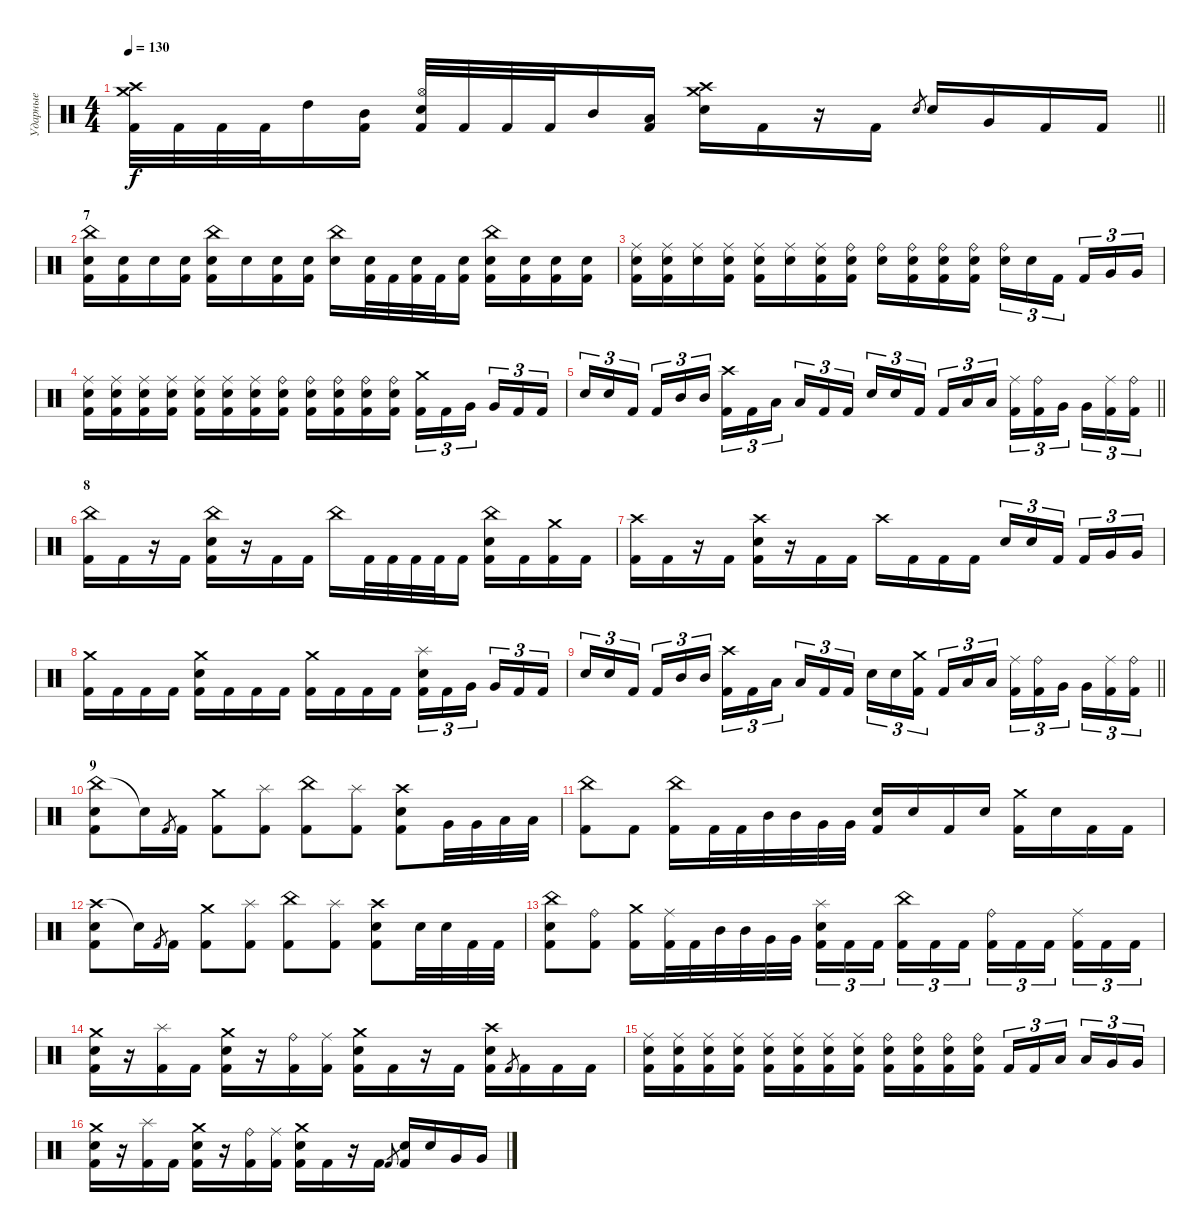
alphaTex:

\track ("Ударные" "Ударные") {instrument percussion}
\staff {score}
\articulation defaults
\ts (4 4)
\tempo 130
\clef neutral
\barLineRight lightlight
\ks c
("Crash medium (hit)" "Crash high (hit)" "Kick (hit) 2").32{dy f} "Kick (hit) 2".32 "Kick (hit) 2".32 "Kick (hit) 2".32 "High Tom (hit)".16 ("Mid Tom (hit)" "Kick (hit) 2").16 ("Hi-Hat (open)" "Electric Snare (hit)" "Kick (hit) 2").32 "Kick (hit) 2".32 "Kick (hit) 2".32 "Kick (hit) 2".32 "Mid Tom (hit)".16 ("Low Tom (hit)" "Kick (hit) 2").16 ("Crash medium (hit)" "Crash high (hit)" "Electric Snare (hit)").16 "Kick (hit) 2".16 r.16 "Kick (hit) 2".16 "Electric Snare (hit)".8{gr} "Electric Snare (hit)".16 "Very Low Tom (hit)".16 "Kick (hit) 2".16 "Kick (hit) 2".16 |
\section ("" "7")
("China (hit)" "Electric Snare (hit)" "Kick (hit) 2").16 ("Electric Snare (hit)" "Kick (hit) 2").16 "Electric Snare (hit)".16 ("Electric Snare (hit)" "Kick (hit) 2").16 ("China (hit)" "Electric Snare (hit)" "Kick (hit) 2").16 "Electric Snare (hit)".16 ("Electric Snare (hit)" "Kick (hit) 2").16 ("Electric Snare (hit)" "Kick (hit) 2").16 ("China (hit)" "Electric Snare (hit)").16 ("Electric Snare (hit)" "Kick (hit) 2").32 "Kick (hit) 2".32 ("Electric Snare (hit)" "Kick (hit) 2").32 "Kick (hit) 2".32 ("Electric Snare (hit)" "Kick (hit) 2").16 ("China (hit)" "Electric Snare (hit)" "Kick (hit) 2").16 ("Electric Snare (hit)" "Kick (hit) 2").16 ("Electric Snare (hit)" "Kick (hit) 2").16 ("Electric Snare (hit)" "Kick (hit) 2").16 |
("Ride (middle)" "Electric Snare (hit)" "Kick (hit) 2").16 ("Ride (middle)" "Electric Snare (hit)" "Kick (hit) 2").16 ("Ride (middle)" "Electric Snare (hit)").16 ("Ride (middle)" "Electric Snare (hit)" "Kick (hit) 2").16 ("Ride (middle)" "Electric Snare (hit)" "Kick (hit) 2").16 ("Ride (middle)" "Electric Snare (hit)").16 ("Ride (middle)" "Electric Snare (hit)" "Kick (hit) 2").16 ("Ride (bell)" "Electric Snare (hit)" "Kick (hit) 2").16 ("Ride (bell)" "Electric Snare (hit)").16 ("Ride (bell)" "Electric Snare (hit)" "Kick (hit) 2").16 ("Ride (bell)" "Electric Snare (hit)" "Kick (hit) 2").16 ("Ride (bell)" "Electric Snare (hit)" "Kick (hit) 2").16 ("Ride (bell)" "Electric Snare (hit)").16{tu (3 2)} "Electric Snare (hit)".16{tu (3 2)} "Kick (hit) 2".16{tu (3 2) beam splitsecondary} "Kick (hit) 2".16{tu (3 2)} "Very Low Tom (hit)".16{tu (3 2)} "Very Low Tom (hit)".16{tu (3 2)} |
("Ride (middle)" "Electric Snare (hit)" "Kick (hit) 2").16 ("Ride (middle)" "Electric Snare (hit)" "Kick (hit) 2").16 ("Ride (middle)" "Electric Snare (hit)" "Kick (hit) 2").16 ("Ride (middle)" "Electric Snare (hit)" "Kick (hit) 2").16 ("Ride (middle)" "Electric Snare (hit)" "Kick (hit) 2").16 ("Ride (middle)" "Electric Snare (hit)" "Kick (hit) 2").16 ("Ride (middle)" "Electric Snare (hit)" "Kick (hit) 2").16 ("Ride (bell)" "Electric Snare (hit)" "Kick (hit) 2").16 ("Ride (bell)" "Electric Snare (hit)" "Kick (hit) 2").16 ("Ride (bell)" "Electric Snare (hit)" "Kick (hit) 2").16 ("Ride (bell)" "Electric Snare (hit)" "Kick (hit) 2").16 ("Ride (bell)" "Electric Snare (hit)" "Kick (hit) 2").16 ("Crash medium (hit)" "Kick (hit) 2").16{tu (3 2)} "Kick (hit) 2".16{tu (3 2)} "Very Low Tom (hit)".16{tu (3 2) beam splitsecondary} "Very Low Tom (hit)".16{tu (3 2)} "Kick (hit) 2".16{tu (3 2)} "Kick (hit) 2".16{tu (3 2)} |
\barLineRight lightlight "Electric Snare (hit)".16{tu (3 2)} "Electric Snare (hit)".16{tu (3 2)} "Kick (hit) 2".16{tu (3 2) beam splitsecondary} "Kick (hit) 2".16{tu (3 2)} "Mid Tom (hit)".16{tu (3 2)} "Mid Tom (hit)".16{tu (3 2)}
("Crash high (hit)" "Kick (hit) 2").16{tu (3 2)} "Kick (hit) 2".16{tu (3 2)} "Low Tom (hit)".16{tu (3 2) beam splitsecondary} "Low Tom (hit)".16{tu (3 2)} "Kick (hit) 2".16{tu (3 2)} "Kick (hit) 2".16{tu (3 2)} "Electric Snare (hit)".16{tu (3 2)} "Electric Snare (hit)".16{tu (3 2)} "Kick (hit) 2".16{tu (3 2) beam splitsecondary} "Kick (hit) 2".16{tu (3 2)} "Low Tom (hit)".16{tu (3 2)} "Low Tom (hit)".16{tu (3 2)} ("Ride (middle)" "Kick (hit) 2").16{tu (3 2)} ("Ride (bell)" "Kick (hit) 2").16{tu (3 2)} "Very Low Tom (hit)".16{tu (3 2) beam splitsecondary} "Very Low Tom (hit)".16{tu (3 2)} ("Ride (middle)" "Kick (hit) 2").16{tu (3 2)} ("Ride (bell)" "Kick (hit) 2").16{tu (3 2)} |
\section ("" "8")
("China (hit)" "Kick (hit) 2").16 "Kick (hit) 2".16 r.16 "Kick (hit) 2".16 ("China (hit)" "Electric Snare (hit)" "Kick (hit) 2").16 r.16 "Kick (hit) 2".16 "Kick (hit) 2".16 "China (hit)".16 "Kick (hit) 2".32 "Kick (hit) 2".32 "Kick (hit) 2".32 "Kick (hit) 2".32 "Kick (hit) 2".16 ("China (hit)" "Electric Snare (hit)" "Kick (hit) 2").16 "Kick (hit) 2".16 ("Crash medium (hit)" "Kick (hit) 2").16 "Kick (hit) 2".16 |
("Crash high (hit)" "Kick (hit) 2").16 "Kick (hit) 2".16 r.16 "Kick (hit) 2".16 ("Crash high (hit)" "Electric Snare (hit)" "Kick (hit) 2").16 r.16 "Kick (hit) 2".16 "Kick (hit) 2".16 "Crash high (hit)".16 "Kick (hit) 2".16 "Kick (hit) 2".16 "Kick (hit) 2".16 "Electric Snare (hit)".16{tu (3 2)} "Electric Snare (hit)".16{tu (3 2)} "Kick (hit) 2".16{tu (3 2) beam splitsecondary} "Kick (hit) 2".16{tu (3 2)} "Very Low Tom (hit)".16{tu (3 2)} "Very Low Tom (hit)".16{tu (3 2)} |
("Crash medium (hit)" "Kick (hit) 2").16 "Kick (hit) 2".16 "Kick (hit) 2".16 "Kick (hit) 2".16 ("Crash medium (hit)" "Electric Snare (hit)" "Kick (hit) 2").16 "Kick (hit) 2".16 "Kick (hit) 2".16 "Kick (hit) 2".16 ("Crash medium (hit)" "Kick (hit) 2").16 "Kick (hit) 2".16 "Kick (hit) 2".16 "Kick (hit) 2".16 ("Splash (hit)" "Electric Snare (hit)" "Kick (hit) 2").16{tu (3 2)} "Kick (hit) 2".16{tu (3 2)} "Very Low Tom (hit)".16{tu (3 2) beam splitsecondary} "Very Low Tom (hit)".16{tu (3 2)} "Kick (hit) 2".16{tu (3 2)} "Kick (hit) 2".16{tu (3 2)} |
\barLineRight lightlight "Electric Snare (hit)".16{tu (3 2)} "Electric Snare (hit)".16{tu (3 2)} "Kick (hit) 2".16{tu (3 2) beam splitsecondary} "Kick (hit) 2".16{tu (3 2)} "Mid Tom (hit)".16{tu (3 2)} "Mid Tom (hit)".16{tu (3 2)}
("Crash high (hit)" "Kick (hit) 2").16{tu (3 2)} "Kick (hit) 2".16{tu (3 2)} "Low Tom (hit)".16{tu (3 2) beam splitsecondary} "Low Tom (hit)".16{tu (3 2)} "Kick (hit) 2".16{tu (3 2)} "Kick (hit) 2".16{tu (3 2)} "Electric Snare (hit)".16{tu (3 2)} "Electric Snare (hit)".16{tu (3 2)} ("Crash medium (hit)" "Kick (hit) 2").16{tu (3 2) beam splitsecondary} "Kick (hit) 2".16{tu (3 2)} "Low Tom (hit)".16{tu (3 2)} "Low Tom (hit)".16{tu (3 2)} ("Ride (middle)" "Kick (hit) 2").16{tu (3 2)} ("Ride (bell)" "Kick (hit) 2").16{tu (3 2)} "Very Low Tom (hit)".16{tu (3 2) beam splitsecondary} "Very Low Tom (hit)".16{tu (3 2)} ("Ride (middle)" "Kick (hit) 2").16{tu (3 2)} ("Ride (bell)" "Kick (hit) 2").16{tu (3 2)} |
\section ("" "9")
("China (hit)" "Electric Snare (hit)" "Kick (hit) 2").8 "Snare (hit)"{t}.16 "Kick (hit) 2".8{gr} "Kick (hit) 2".16 ("Crash medium (hit)" "Kick (hit) 2").8 ("Splash (hit)" "Kick (hit) 2").8 ("China (hit)" "Kick (hit) 2").8 ("Splash (hit)" "Kick (hit) 2").8 ("Crash high (hit)" "Electric Snare (hit)" "Kick (hit) 2").8 "Very Low Tom (hit)".32 "Very Low Tom (hit)".32 "Low Tom (hit)".32 "Low Tom (hit)".32 |
("China (hit)" "Kick (hit) 2").8 "Kick (hit) 2".8 ("China (hit)" "Kick (hit) 2").16 "Kick (hit) 2".32 "Kick (hit) 2".32 "Mid Tom (hit)".32 "Mid Tom (hit)".32 "Very Low Tom (hit)".32 "Very Low Tom (hit)".32 ("Electric Snare (hit)" "Kick (hit) 2").16 "Electric Snare (hit)".16 "Kick (hit) 2".16 "Electric Snare (hit)".16 ("Crash medium (hit)" "Kick (hit) 2").16 "Electric Snare (hit)".16 "Kick (hit) 2".16 "Kick (hit) 2".16 |
("Crash high (hit)" "Electric Snare (hit)" "Kick (hit) 2").8 "Snare (hit)"{t}.16 "Kick (hit) 2".8{gr} "Kick (hit) 2".16 ("Crash medium (hit)" "Kick (hit) 2").8 ("Splash (hit)" "Kick (hit) 2").8 ("China (hit)" "Kick (hit) 2").8 ("Splash (hit)" "Kick (hit) 2").8 ("Crash high (hit)" "Electric Snare (hit)" "Kick (hit) 2").8 "Electric Snare (hit)".32 "Electric Snare (hit)".32 "Kick (hit) 2".32 "Kick (hit) 2".32 |
("China (hit)" "Electric Snare (hit)" "Kick (hit) 2").8 ("Ride (bell)" "Kick (hit) 2").8 ("Crash medium (hit)" "Kick (hit) 2").16 ("Ride (middle)" "Kick (hit) 2").32 "Kick (hit) 2".32 "Mid Tom (hit)".32 "Mid Tom (hit)".32 "Very Low Tom (hit)".32 "Very Low Tom (hit)".32 ("Splash (hit)" "Electric Snare (hit)" "Kick (hit) 2").16{tu (3 2)} "Kick (hit) 2".16{tu (3 2)} "Kick (hit) 2".16{tu (3 2) beam splitsecondary} ("China (hit)" "Kick (hit) 2").16{tu (3 2)} "Kick (hit) 2".16{tu (3 2)} "Kick (hit) 2".16{tu (3 2)} ("Ride (bell)" "Kick (hit) 2").16{tu (3 2)} "Kick (hit) 2".16{tu (3 2)} "Kick (hit) 2".16{tu (3 2) beam splitsecondary} ("Ride (middle)" "Kick (hit) 2").16{tu (3 2)} "Kick (hit) 2".16{tu (3 2)} "Kick (hit) 2".16{tu (3 2)} |
("Crash medium (hit)" "Electric Snare (hit)" "Kick (hit) 2").16 r.16 ("Splash (hit)" "Kick (hit) 2").16 "Kick (hit) 2".16 ("Crash medium (hit)" "Electric Snare (hit)" "Kick (hit) 2").16 r.16 ("Ride (bell)" "Kick (hit) 2").16 ("Ride (middle)" "Kick (hit) 2").16 ("Crash medium (hit)" "Electric Snare (hit)" "Kick (hit) 2").16 "Kick (hit) 2".16 r.16 "Kick (hit) 2".16 ("Crash high (hit)" "Electric Snare (hit)" "Kick (hit) 2").16 "Kick (hit) 2".8{gr} "Kick (hit) 2".16 "Kick (hit) 2".16 "Kick (hit) 2".16 |
("Ride (middle)" "Electric Snare (hit)" "Kick (hit) 2").16 ("Ride (middle)" "Electric Snare (hit)" "Kick (hit) 2").16 ("Ride (middle)" "Electric Snare (hit)" "Kick (hit) 2").16 ("Ride (middle)" "Electric Snare (hit)" "Kick (hit) 2").16 ("Ride (middle)" "Electric Snare (hit)" "Kick (hit) 2").16 ("Ride (middle)" "Electric Snare (hit)" "Kick (hit) 2").16 ("Ride (middle)" "Electric Snare (hit)" "Kick (hit) 2").16 ("Ride (middle)" "Electric Snare (hit)" "Kick (hit) 2").16 ("Ride (bell)" "Electric Snare (hit)" "Kick (hit) 2").16 ("Ride (bell)" "Electric Snare (hit)" "Kick (hit) 2").16 ("Ride (bell)" "Electric Snare (hit)" "Kick (hit) 2").16 ("Ride (bell)" "Electric Snare (hit)" "Kick (hit) 2").16 "Kick (hit) 2".16{tu (3 2)} "Kick (hit) 2".16{tu (3 2)} "Low Tom (hit)".16{tu (3 2) beam splitsecondary} "Low Tom (hit)".16{tu (3 2)} "Very Low Tom (hit)".16{tu (3 2)} "Very Low Tom (hit)".16{tu (3 2)} |
("Crash medium (hit)" "Electric Snare (hit)" "Kick (hit) 2").16 r.16 ("Splash (hit)" "Kick (hit) 2").16 "Kick (hit) 2".16 ("Crash medium (hit)" "Electric Snare (hit)" "Kick (hit) 2").16 r.16 ("Ride (bell)" "Kick (hit) 2").16 ("Ride (middle)" "Kick (hit) 2").16 ("Crash medium (hit)" "Electric Snare (hit)" "Kick (hit) 2").16 "Kick (hit) 2".16 r.16 "Kick (hit) 2".16 "Kick (hit) 2".8{gr} ("Electric Snare (hit)" "Kick (hit) 2").16 "Electric Snare (hit)".16 "Very Low Tom (hit)".16 "Very Low Tom (hit)".16
